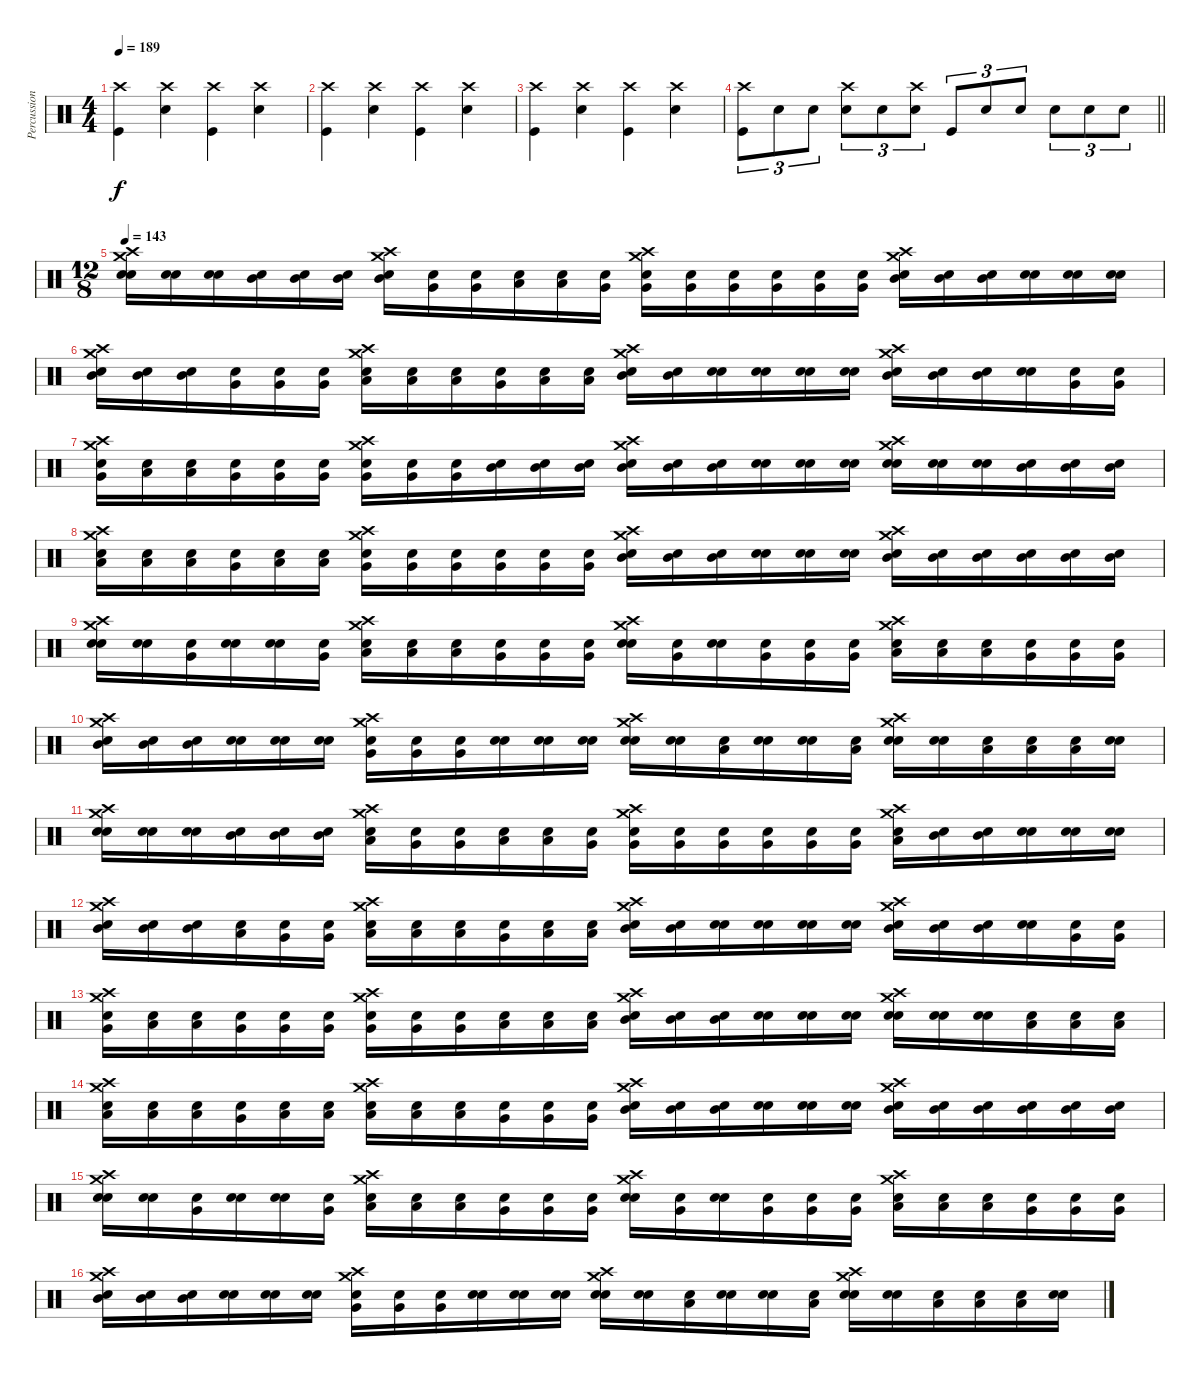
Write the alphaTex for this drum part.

\track ("Percussions" "Percussion") {instrument percussion}
\staff {score}
\articulation defaults
\ts (4 4)
\tempo 189
\clef neutral
\ks c
("Crash high (hit)" "Kick (hit)").4{dy f} ("Crash high (hit)" "Snare (hit) 2").4 ("Crash high (hit)" "Kick (hit)").4 ("Crash high (hit)" "Snare (hit) 2").4 |
("Crash high (hit)" "Kick (hit)").4 ("Crash high (hit)" "Snare (hit) 2").4 ("Crash high (hit)" "Kick (hit)").4 ("Crash high (hit)" "Snare (hit) 2").4 |
("Crash high (hit)" "Kick (hit)").4 ("Crash high (hit)" "Snare (hit) 2").4 ("Crash high (hit)" "Kick (hit)").4 ("Crash high (hit)" "Snare (hit) 2").4 |
\barLineRight lightlight
("Crash high (hit)" "Kick (hit)").8{tu (3 2)} "Snare (hit) 2".8{tu (3 2)} "Snare (hit) 2".8{tu (3 2)} ("Crash high (hit)" "Snare (hit) 2").8{tu (3 2)} "Snare (hit) 2".8{tu (3 2)} ("Crash high (hit)" "Snare (hit) 2").8{tu (3 2)} "Kick (hit)".8{tu (3 2)} "Snare (hit) 2".8{tu (3 2)} "Snare (hit) 2".8{tu (3 2)} "Snare (hit) 2".8{tu (3 2)} "Snare (hit) 2".8{tu (3 2)} "Snare (hit) 2".8{tu (3 2)} |
\ts (12 8)
\tempo 143
("Snare (hit)" "Snare (hit) 2" "Crash medium (hit)" "Crash high (hit)").16 ("Snare (hit)" "Electric Snare (hit)").16 ("Snare (hit)" "Electric Snare (hit)").16 ("Snare (hit)" "Mid Tom (hit)").16 ("Snare (hit)" "Mid Tom (hit)").16 ("Snare (hit)" "Mid Tom (hit)").16 ("Snare (hit)" "Mid Tom (hit)" "Crash high (hit)" "Crash medium (hit)").16 ("Snare (hit)" "Very Low Tom (hit)").16 ("Snare (hit)" "Very Low Tom (hit)").16 ("Snare (hit)" "Low Floor Tom (hit)").16 ("Snare (hit)" "Low Floor Tom (hit)").16 ("Snare (hit)" "Very Low Tom (hit)").16 ("Snare (hit)" "Very Low Tom (hit)" "Crash medium (hit)" "Crash high (hit)").16 ("Snare (hit)" "Very Low Tom (hit)").16 ("Snare (hit)" "Very Low Tom (hit)").16 ("Snare (hit)" "Very Low Tom (hit)").16 ("Snare (hit)" "Very Low Tom (hit)").16 ("Snare (hit)" "Very Low Tom (hit)").16 ("Snare (hit)" "Mid Tom (hit)" "Crash high (hit)" "Crash medium (hit)").16 ("Snare (hit)" "Mid Tom (hit)").16 ("Snare (hit)" "Mid Tom (hit)").16 ("Snare (hit)" "Electric Snare (hit)").16 ("Snare (hit)" "Electric Snare (hit)").16 ("Snare (hit)" "Electric Snare (hit)").16 |
("Snare (hit)" "Mid Tom (hit)" "Crash medium (hit)" "Crash high (hit)").16 ("Snare (hit)" "Mid Tom (hit)").16 ("Snare (hit)" "Mid Tom (hit)").16 ("Snare (hit)" "Very Low Tom (hit)").16 ("Snare (hit)" "Very Low Tom (hit)").16 ("Snare (hit)" "Very Low Tom (hit)").16 ("Snare (hit)" "Low Floor Tom (hit)" "Crash high (hit)" "Crash medium (hit)").16 ("Snare (hit)" "Low Floor Tom (hit)").16 ("Snare (hit)" "Low Floor Tom (hit)").16 ("Snare (hit)" "Very Low Tom (hit)").16 ("Snare (hit)" "Low Floor Tom (hit)").16 ("Snare (hit)" "Low Floor Tom (hit)").16 ("Snare (hit)" "Mid Tom (hit)" "Crash medium (hit)" "Crash high (hit)").16 ("Snare (hit)" "Mid Tom (hit)").16 ("Snare (hit)" "Electric Snare (hit)").16 ("Snare (hit)" "Electric Snare (hit)").16 ("Snare (hit)" "Electric Snare (hit)").16 ("Snare (hit)" "Electric Snare (hit)").16 ("Snare (hit)" "Mid Tom (hit)" "Crash high (hit)" "Crash medium (hit)").16 ("Snare (hit)" "Mid Tom (hit)").16 ("Snare (hit)" "Mid Tom (hit)").16 ("Snare (hit)" "Electric Snare (hit)").16 ("Snare (hit)" "Very Low Tom (hit)").16 ("Snare (hit)" "Very Low Tom (hit)").16 |
("Snare (hit)" "Very Low Tom (hit)" "Crash medium (hit)" "Crash high (hit)").16 ("Snare (hit)" "Low Floor Tom (hit)").16 ("Snare (hit)" "Low Floor Tom (hit)").16 ("Snare (hit)" "Very Low Tom (hit)").16 ("Snare (hit)" "Very Low Tom (hit)").16 ("Snare (hit)" "Very Low Tom (hit)").16 ("Snare (hit)" "Very Low Tom (hit)" "Crash high (hit)" "Crash medium (hit)").16 ("Snare (hit)" "Very Low Tom (hit)").16 ("Snare (hit)" "Very Low Tom (hit)").16 ("Snare (hit)" "Mid Tom (hit)").16 ("Snare (hit)" "Mid Tom (hit)").16 ("Snare (hit)" "Mid Tom (hit)").16 ("Snare (hit)" "Mid Tom (hit)" "Crash medium (hit)" "Crash high (hit)").16 ("Snare (hit)" "Mid Tom (hit)").16 ("Snare (hit)" "Mid Tom (hit)").16 ("Snare (hit)" "Snare (hit) 2").16 ("Snare (hit)" "Electric Snare (hit)").16 ("Snare (hit)" "Electric Snare (hit)").16 ("Snare (hit)" "Electric Snare (hit)" "Crash high (hit)" "Crash medium (hit)").16 ("Snare (hit)" "Electric Snare (hit)").16 ("Snare (hit)" "Electric Snare (hit)").16 ("Snare (hit)" "Mid Tom (hit)").16 ("Snare (hit)" "Mid Tom (hit)").16 ("Snare (hit)" "Mid Tom (hit)").16 |
("Snare (hit)" "Low Floor Tom (hit)" "Crash medium (hit)" "Crash high (hit)").16 ("Snare (hit)" "Low Floor Tom (hit)").16 ("Snare (hit)" "Low Floor Tom (hit)").16 ("Snare (hit)" "Very Low Tom (hit)").16 ("Snare (hit)" "Low Floor Tom (hit)").16 ("Snare (hit)" "Low Floor Tom (hit)").16 ("Snare (hit)" "Very Low Tom (hit)" "Crash high (hit)" "Crash medium (hit)").16 ("Snare (hit)" "Very Low Tom (hit)").16 ("Snare (hit)" "Very Low Tom (hit)").16 ("Snare (hit)" "Very Low Tom (hit)").16 ("Snare (hit)" "Very Low Tom (hit)").16 ("Snare (hit)" "Very Low Tom (hit)").16 ("Snare (hit)" "Mid Tom (hit)" "Crash medium (hit)" "Crash high (hit)").16 ("Snare (hit)" "Mid Tom (hit)").16 ("Snare (hit)" "Mid Tom (hit)").16 ("Snare (hit)" "Snare (hit) 2").16 ("Snare (hit)" "Snare (hit) 2").16 ("Snare (hit)" "Snare (hit) 2").16 ("Snare (hit)" "Mid Tom (hit)" "Crash high (hit)" "Crash medium (hit)").16 ("Snare (hit)" "Mid Tom (hit)").16 ("Snare (hit)" "Mid Tom (hit)").16 ("Snare (hit)" "Mid Tom (hit)").16 ("Snare (hit)" "Mid Tom (hit)").16 ("Snare (hit)" "Mid Tom (hit)").16 |
("Snare (hit)" "Electric Snare (hit)" "Crash medium (hit)" "Crash high (hit)").16 ("Snare (hit)" "Electric Snare (hit)").16 ("Snare (hit)" "Very Low Tom (hit)").16 ("Snare (hit)" "Snare (hit) 2").16 ("Snare (hit)" "Snare (hit) 2").16 ("Snare (hit)" "Very Low Tom (hit)").16 ("Snare (hit)" "Low Floor Tom (hit)" "Crash high (hit)" "Crash medium (hit)").16 ("Snare (hit)" "Low Floor Tom (hit)").16 ("Snare (hit)" "Low Floor Tom (hit)").16 ("Snare (hit)" "Very Low Tom (hit)").16 ("Snare (hit)" "Very Low Tom (hit)").16 ("Snare (hit)" "Very Low Tom (hit)").16 ("Snare (hit)" "Snare (hit) 2" "Crash medium (hit)" "Crash high (hit)").16 ("Snare (hit)" "Very Low Tom (hit)").16 ("Snare (hit)" "Electric Snare (hit)").16 ("Snare (hit)" "Very Low Tom (hit)").16 ("Snare (hit)" "Very Low Tom (hit)").16 ("Snare (hit)" "Very Low Tom (hit)").16 ("Snare (hit)" "Low Floor Tom (hit)" "Crash high (hit)" "Crash medium (hit)").16 ("Snare (hit)" "Low Floor Tom (hit)").16 ("Snare (hit)" "Low Floor Tom (hit)").16 ("Snare (hit)" "Very Low Tom (hit)").16 ("Snare (hit)" "Very Low Tom (hit)").16 ("Snare (hit)" "Very Low Tom (hit)").16 |
("Snare (hit)" "Mid Tom (hit)" "Crash medium (hit)" "Crash high (hit)").16 ("Snare (hit)" "Mid Tom (hit)").16 ("Snare (hit)" "Mid Tom (hit)").16 ("Snare (hit)" "Snare (hit) 2").16 ("Snare (hit)" "Snare (hit) 2").16 ("Snare (hit)" "Snare (hit) 2").16 ("Snare (hit)" "Very Low Tom (hit)" "Crash high (hit)" "Crash medium (hit)").16 ("Snare (hit)" "Very Low Tom (hit)").16 ("Snare (hit)" "Very Low Tom (hit)").16 ("Snare (hit)" "Snare (hit) 2").16 ("Snare (hit)" "Snare (hit) 2").16 ("Snare (hit)" "Snare (hit) 2").16 ("Snare (hit)" "Electric Snare (hit)" "Crash medium (hit)" "Crash high (hit)").16 ("Snare (hit)" "Snare (hit) 2").16 ("Snare (hit)" "Low Floor Tom (hit)").16 ("Snare (hit)" "Snare (hit) 2").16 ("Snare (hit)" "Snare (hit) 2").16 ("Snare (hit)" "Low Floor Tom (hit)").16 ("Snare (hit)" "Snare (hit) 2" "Crash high (hit)" "Crash medium (hit)").16 ("Snare (hit)" "Snare (hit) 2").16 ("Snare (hit)" "Low Floor Tom (hit)").16 ("Snare (hit)" "Low Floor Tom (hit)").16 ("Snare (hit)" "Low Floor Tom (hit)").16 ("Snare (hit)" "Snare (hit) 2").16 |
("Snare (hit)" "Electric Snare (hit)" "Crash medium (hit)" "Crash high (hit)").16 ("Snare (hit)" "Snare (hit) 2").16 ("Snare (hit)" "Snare (hit) 2").16 ("Snare (hit)" "Mid Tom (hit)").16 ("Snare (hit)" "Mid Tom (hit)").16 ("Snare (hit)" "Mid Tom (hit)").16 ("Snare (hit)" "Low Tom (hit)" "Crash high (hit)" "Crash medium (hit)").16 ("Snare (hit)" "Very Low Tom (hit)").16 ("Snare (hit)" "Very Low Tom (hit)").16 ("Snare (hit)" "Low Floor Tom (hit)").16 ("Snare (hit)" "Low Floor Tom (hit)").16 ("Snare (hit)" "Very Low Tom (hit)").16 ("Snare (hit)" "Very Low Tom (hit)" "Crash medium (hit)" "Crash high (hit)").16 ("Snare (hit)" "Very Low Tom (hit)").16 ("Snare (hit)" "Very Low Tom (hit)").16 ("Snare (hit)" "Very Low Tom (hit)").16 ("Snare (hit)" "Very Low Tom (hit)").16 ("Snare (hit)" "Very Low Tom (hit)").16 ("Snare (hit)" "Low Tom (hit)" "Crash high (hit)" "Crash medium (hit)").16 ("Snare (hit)" "Mid Tom (hit)").16 ("Snare (hit)" "Mid Tom (hit)").16 ("Snare (hit)" "Snare (hit) 2").16 ("Snare (hit)" "Snare (hit) 2").16 ("Snare (hit)" "Snare (hit) 2").16 |
("Snare (hit)" "Mid Tom (hit)" "Crash medium (hit)" "Crash high (hit)").16 ("Snare (hit)" "Mid Tom (hit)").16 ("Snare (hit)" "Mid Tom (hit)").16 ("Snare (hit)" "Low Tom (hit)").16 ("Snare (hit)" "Very Low Tom (hit)").16 ("Snare (hit)" "Very Low Tom (hit)").16 ("Snare (hit)" "Low Floor Tom (hit)" "Crash high (hit)" "Crash medium (hit)").16 ("Snare (hit)" "Low Floor Tom (hit)").16 ("Snare (hit)" "Low Floor Tom (hit)").16 ("Snare (hit)" "Very Low Tom (hit)").16 ("Snare (hit)" "Low Floor Tom (hit)").16 ("Snare (hit)" "Low Floor Tom (hit)").16 ("Snare (hit)" "Mid Tom (hit)" "Crash medium (hit)" "Crash high (hit)").16 ("Snare (hit)" "Mid Tom (hit)").16 ("Snare (hit)" "Snare (hit) 2").16 ("Snare (hit)" "Snare (hit) 2").16 ("Snare (hit)" "Snare (hit) 2").16 ("Snare (hit)" "Snare (hit) 2").16 ("Snare (hit)" "Mid Tom (hit)" "Crash high (hit)" "Crash medium (hit)").16 ("Snare (hit)" "Mid Tom (hit)").16 ("Snare (hit)" "Mid Tom (hit)").16 ("Snare (hit)" "Electric Snare (hit)").16 ("Snare (hit)" "Very Low Tom (hit)").16 ("Snare (hit)" "Very Low Tom (hit)").16 |
("Snare (hit)" "Very Low Tom (hit)" "Crash medium (hit)" "Crash high (hit)").16 ("Snare (hit)" "Low Floor Tom (hit)").16 ("Snare (hit)" "Low Floor Tom (hit)").16 ("Snare (hit)" "Very Low Tom (hit)").16 ("Snare (hit)" "Very Low Tom (hit)").16 ("Snare (hit)" "Very Low Tom (hit)").16 ("Snare (hit)" "Very Low Tom (hit)" "Crash high (hit)" "Crash medium (hit)").16 ("Snare (hit)" "Very Low Tom (hit)").16 ("Snare (hit)" "Very Low Tom (hit)").16 ("Snare (hit)" "Low Tom (hit)").16 ("Snare (hit)" "Low Tom (hit)").16 ("Snare (hit)" "Low Tom (hit)").16 ("Snare (hit)" "Mid Tom (hit)" "Crash medium (hit)" "Crash high (hit)").16 ("Snare (hit)" "Mid Tom (hit)").16 ("Snare (hit)" "Mid Tom (hit)").16 ("Snare (hit)" "Snare (hit) 2").16 ("Snare (hit)" "Snare (hit) 2").16 ("Snare (hit)" "Snare (hit) 2").16 ("Snare (hit)" "Snare (hit) 2" "Crash high (hit)" "Crash medium (hit)").16 ("Snare (hit)" "Snare (hit) 2").16 ("Snare (hit)" "Snare (hit) 2").16 ("Snare (hit)" "Low Tom (hit)").16 ("Snare (hit)" "Low Tom (hit)").16 ("Snare (hit)" "Low Tom (hit)").16 |
("Snare (hit)" "Low Floor Tom (hit)" "Crash medium (hit)" "Crash high (hit)").16 ("Snare (hit)" "Low Floor Tom (hit)").16 ("Snare (hit)" "Low Floor Tom (hit)").16 ("Snare (hit)" "Very Low Tom (hit)").16 ("Snare (hit)" "Low Floor Tom (hit)").16 ("Snare (hit)" "Low Floor Tom (hit)").16 ("Snare (hit)" "Low Tom (hit)" "Crash high (hit)" "Crash medium (hit)").16 ("Snare (hit)" "Low Tom (hit)").16 ("Snare (hit)" "Low Tom (hit)").16 ("Snare (hit)" "Very Low Tom (hit)").16 ("Snare (hit)" "Very Low Tom (hit)").16 ("Snare (hit)" "Very Low Tom (hit)").16 ("Snare (hit)" "Mid Tom (hit)" "Crash medium (hit)" "Crash high (hit)").16 ("Snare (hit)" "Mid Tom (hit)").16 ("Snare (hit)" "Mid Tom (hit)").16 ("Snare (hit)" "Snare (hit) 2").16 ("Snare (hit)" "Snare (hit) 2").16 ("Snare (hit)" "Snare (hit) 2").16 ("Snare (hit)" "Mid Tom (hit)" "Crash high (hit)" "Crash medium (hit)").16 ("Snare (hit)" "Mid Tom (hit)").16 ("Snare (hit)" "Mid Tom (hit)").16 ("Snare (hit)" "Mid Tom (hit)").16 ("Snare (hit)" "Mid Tom (hit)").16 ("Snare (hit)" "Mid Tom (hit)").16 |
("Snare (hit)" "Snare (hit) 2" "Crash medium (hit)" "Crash high (hit)").16 ("Snare (hit)" "Snare (hit) 2").16 ("Snare (hit)" "Very Low Tom (hit)").16 ("Snare (hit)" "Snare (hit) 2").16 ("Snare (hit)" "Snare (hit) 2").16 ("Snare (hit)" "Very Low Tom (hit)").16 ("Snare (hit)" "Low Floor Tom (hit)" "Crash high (hit)" "Crash medium (hit)").16 ("Snare (hit)" "Low Floor Tom (hit)").16 ("Snare (hit)" "Low Floor Tom (hit)").16 ("Snare (hit)" "Very Low Tom (hit)").16 ("Snare (hit)" "Very Low Tom (hit)").16 ("Snare (hit)" "Very Low Tom (hit)").16 ("Snare (hit)" "Snare (hit) 2" "Crash medium (hit)" "Crash high (hit)").16 ("Snare (hit)" "Very Low Tom (hit)").16 ("Snare (hit)" "Snare (hit) 2").16 ("Snare (hit)" "Very Low Tom (hit)").16 ("Snare (hit)" "Very Low Tom (hit)").16 ("Snare (hit)" "Very Low Tom (hit)").16 ("Snare (hit)" "Low Floor Tom (hit)" "Crash high (hit)" "Crash medium (hit)").16 ("Snare (hit)" "Low Floor Tom (hit)").16 ("Snare (hit)" "Low Floor Tom (hit)").16 ("Snare (hit)" "Very Low Tom (hit)").16 ("Snare (hit)" "Very Low Tom (hit)").16 ("Snare (hit)" "Very Low Tom (hit)").16 |
("Snare (hit)" "Mid Tom (hit)" "Crash medium (hit)" "Crash high (hit)").16 ("Snare (hit)" "Mid Tom (hit)").16 ("Snare (hit)" "Mid Tom (hit)").16 ("Snare (hit)" "Electric Snare (hit)").16 ("Snare (hit)" "Snare (hit) 2").16 ("Snare (hit)" "Snare (hit) 2").16 ("Snare (hit)" "Very Low Tom (hit)" "Crash high (hit)" "Crash medium (hit)").16 ("Snare (hit)" "Very Low Tom (hit)").16 ("Snare (hit)" "Very Low Tom (hit)").16 ("Snare (hit)" "Snare (hit) 2").16 ("Snare (hit)" "Snare (hit) 2").16 ("Snare (hit)" "Snare (hit) 2").16 ("Snare (hit)" "Electric Snare (hit)" "Crash medium (hit)" "Crash high (hit)").16 ("Snare (hit)" "Electric Snare (hit)").16 ("Snare (hit)" "Low Floor Tom (hit)").16 ("Snare (hit)" "Electric Snare (hit)").16 ("Snare (hit)" "Electric Snare (hit)").16 ("Snare (hit)" "Low Floor Tom (hit)").16 ("Snare (hit)" "Electric Snare (hit)" "Crash high (hit)" "Crash medium (hit)").16 ("Snare (hit)" "Electric Snare (hit)").16 ("Snare (hit)" "Low Floor Tom (hit)").16 ("Snare (hit)" "Low Floor Tom (hit)").16 ("Snare (hit)" "Low Floor Tom (hit)").16 ("Snare (hit)" "Electric Snare (hit)").16
